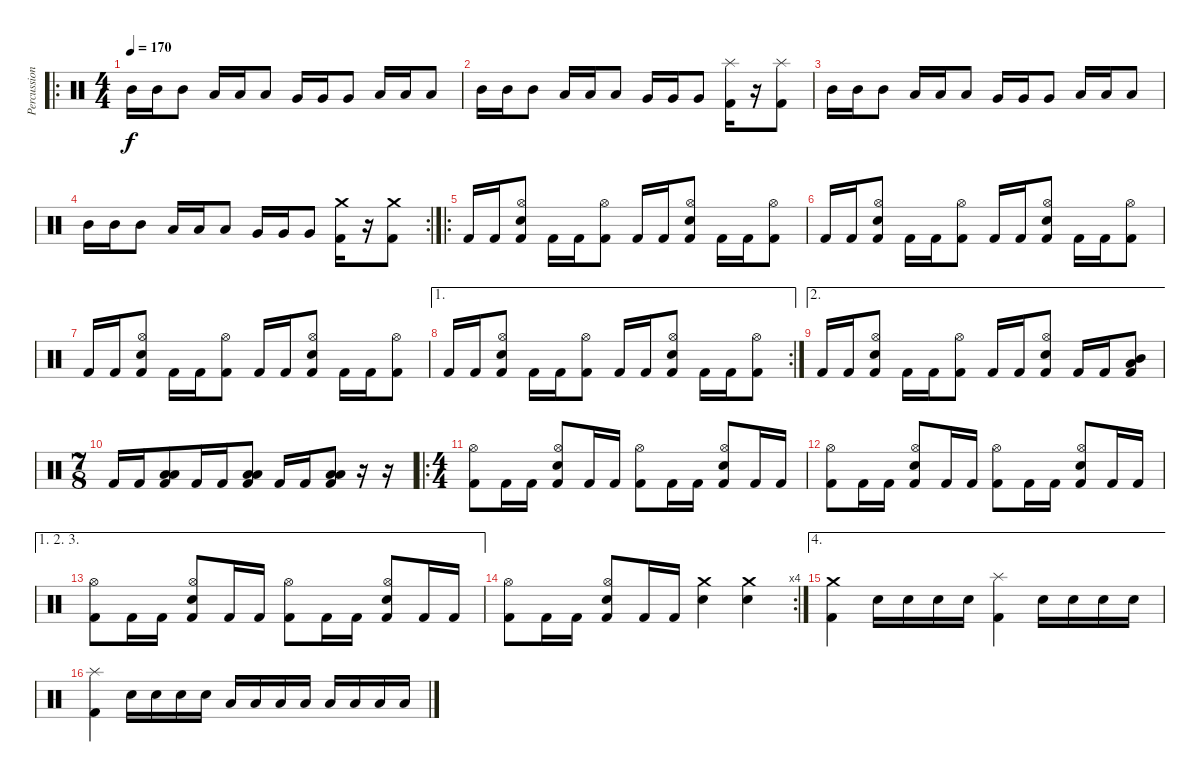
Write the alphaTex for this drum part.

\track ("Percussions" "Percussion") {instrument percussion}
\staff {score}
\articulation defaults
\ro
\ts (4 4)
\tempo 170
\clef neutral
\ks c "Mid Tom (hit)".16{dy f} "Mid Tom (hit)".16 "Mid Tom (hit)".8 "Low Tom (hit)".16 "Low Tom (hit)".16 "Low Tom (hit)".8 "Very Low Tom (hit)".16 "Very Low Tom (hit)".16 "Very Low Tom (hit)".8 "Low Floor Tom (hit)".16 "Low Floor Tom (hit)".16 "Low Floor Tom (hit)".8
|
"Mid Tom (hit)".16 "Mid Tom (hit)".16 "Mid Tom (hit)".8 "Low Tom (hit)".16 "Low Tom (hit)".16 "Low Tom (hit)".8 "Very Low Tom (hit)".16 "Very Low Tom (hit)".16 "Very Low Tom (hit)".8 ("Kick (hit) 2" "Splash (hit)").16 r.16 ("Kick (hit) 2" "Splash (hit)").8 |
"Mid Tom (hit)".16 "Mid Tom (hit)".16 "Mid Tom (hit)".8 "Low Tom (hit)".16 "Low Tom (hit)".16 "Low Tom (hit)".8 "Very Low Tom (hit)".16 "Very Low Tom (hit)".16 "Very Low Tom (hit)".8 "Low Floor Tom (hit)".16 "Low Floor Tom (hit)".16 "Low Floor Tom (hit)".8 |
\rc 2 "Mid Tom (hit)".16 "Mid Tom (hit)".16 "Mid Tom (hit)".8 "Low Tom (hit)".16 "Low Tom (hit)".16 "Low Tom (hit)".8 "Very Low Tom (hit)".16 "Very Low Tom (hit)".16 "Very Low Tom (hit)".8
("Kick (hit) 2" "Crash medium (hit)").16 r.16 ("Kick (hit) 2" "Crash medium (hit)").8 |
\ro "Kick (hit) 2".16 "Kick (hit) 2".16
("Kick (hit) 2" "Hi-Hat (open)" "Snare (hit) 2").8 "Kick (hit) 2".16 "Kick (hit) 2".16 ("Kick (hit) 2" "Hi-Hat (open)").8 "Kick (hit) 2".16 "Kick (hit) 2".16 ("Kick (hit) 2" "Hi-Hat (open)" "Snare (hit) 2").8 "Kick (hit) 2".16 "Kick (hit) 2".16 ("Kick (hit) 2" "Hi-Hat (open)").8 |
"Kick (hit) 2".16 "Kick (hit) 2".16 ("Kick (hit) 2" "Hi-Hat (open)" "Snare (hit) 2").8 "Kick (hit) 2".16 "Kick (hit) 2".16 ("Kick (hit) 2" "Hi-Hat (open)").8 "Kick (hit) 2".16 "Kick (hit) 2".16 ("Kick (hit) 2" "Hi-Hat (open)" "Snare (hit) 2").8 "Kick (hit) 2".16 "Kick (hit) 2".16 ("Kick (hit) 2" "Hi-Hat (open)").8 |
"Kick (hit) 2".16 "Kick (hit) 2".16 ("Kick (hit) 2" "Hi-Hat (open)" "Snare (hit) 2").8 "Kick (hit) 2".16 "Kick (hit) 2".16 ("Kick (hit) 2" "Hi-Hat (open)").8 "Kick (hit) 2".16 "Kick (hit) 2".16 ("Kick (hit) 2" "Hi-Hat (open)" "Snare (hit) 2").8 "Kick (hit) 2".16 "Kick (hit) 2".16 ("Kick (hit) 2" "Hi-Hat (open)").8 |
\ae 1
\rc 2 "Kick (hit) 2".16 "Kick (hit) 2".16
("Kick (hit) 2" "Hi-Hat (open)" "Snare (hit) 2").8 "Kick (hit) 2".16 "Kick (hit) 2".16 ("Kick (hit) 2" "Hi-Hat (open)").8 "Kick (hit) 2".16 "Kick (hit) 2".16 ("Kick (hit) 2" "Hi-Hat (open)" "Snare (hit) 2").8 "Kick (hit) 2".16 "Kick (hit) 2".16 ("Kick (hit) 2" "Hi-Hat (open)").8 |
\ae 2 "Kick (hit) 2".16 "Kick (hit) 2".16
("Kick (hit) 2" "Hi-Hat (open)" "Snare (hit) 2").8 "Kick (hit) 2".16 "Kick (hit) 2".16 ("Kick (hit) 2" "Hi-Hat (open)").8 "Kick (hit) 2".16 "Kick (hit) 2".16 ("Kick (hit) 2" "Hi-Hat (open)" "Snare (hit) 2").8 "Kick (hit) 2".16 "Kick (hit) 2".16 ("Kick (hit) 2" "Mid Tom (hit)" "Low Tom (hit)").8 |
\ts (7 8)
"Kick (hit) 2".16 "Kick (hit) 2".16 ("Kick (hit) 2" "Low Tom (hit)" "Low Floor Tom (hit)").8 "Kick (hit) 2".16 "Kick (hit) 2".16 ("Kick (hit) 2" "Low Floor Tom (hit)" "Low Floor Tom (hit)").8 "Kick (hit) 2".16 "Kick (hit) 2".16 ("Kick (hit) 2" "Low Floor Tom (hit)" "Low Floor Tom (hit)").8 r.16 r.16 |
\ro
\ts (4 4)
("Kick (hit) 2" "Hi-Hat (open)").8 "Kick (hit) 2".16 "Kick (hit) 2".16 ("Kick (hit) 2" "Snare (hit) 2" "Hi-Hat (open)").8 "Kick (hit) 2".16 "Kick (hit) 2".16 ("Kick (hit) 2" "Hi-Hat (open)").8 "Kick (hit) 2".16 "Kick (hit) 2".16 ("Kick (hit) 2" "Snare (hit) 2" "Hi-Hat (open)").8 "Kick (hit) 2".16 "Kick (hit) 2".16 |
("Kick (hit) 2" "Hi-Hat (open)").8 "Kick (hit) 2".16 "Kick (hit) 2".16 ("Kick (hit) 2" "Snare (hit) 2" "Hi-Hat (open)").8 "Kick (hit) 2".16 "Kick (hit) 2".16 ("Kick (hit) 2" "Hi-Hat (open)").8 "Kick (hit) 2".16 "Kick (hit) 2".16 ("Kick (hit) 2" "Snare (hit) 2" "Hi-Hat (open)").8 "Kick (hit) 2".16 "Kick (hit) 2".16 |
\ae (1 2 3)
("Kick (hit) 2" "Hi-Hat (open)").8 "Kick (hit) 2".16 "Kick (hit) 2".16 ("Kick (hit) 2" "Snare (hit) 2" "Hi-Hat (open)").8 "Kick (hit) 2".16 "Kick (hit) 2".16 ("Kick (hit) 2" "Hi-Hat (open)").8 "Kick (hit) 2".16 "Kick (hit) 2".16 ("Kick (hit) 2" "Snare (hit) 2" "Hi-Hat (open)").8 "Kick (hit) 2".16 "Kick (hit) 2".16 |
\rc 4
("Kick (hit) 2" "Hi-Hat (open)").8 "Kick (hit) 2".16 "Kick (hit) 2".16 ("Kick (hit) 2" "Snare (hit) 2" "Hi-Hat (open)").8 "Kick (hit) 2".16 "Kick (hit) 2".16 ("Snare (hit) 2" "Crash medium (hit)").4 ("Snare (hit) 2" "Crash medium (hit)").4 |
\ae 4
("Kick (hit) 2" "Crash medium (hit)").4 "Snare (hit) 2".16 "Snare (hit) 2".16 "Snare (hit) 2".16 "Snare (hit) 2".16 ("Kick (hit) 2" "Splash (hit)").4 "Snare (hit) 2".16 "Snare (hit) 2".16 "Snare (hit) 2".16 "Snare (hit) 2".16 |
("Kick (hit) 2" "Splash (hit)").4 "Snare (hit) 2".16 "Snare (hit) 2".16 "Snare (hit) 2".16 "Snare (hit) 2".16 "Low Tom (hit)".16 "Low Tom (hit)".16 "Low Tom (hit)".16 "Low Tom (hit)".16 "Low Floor Tom (hit)".16 "Low Floor Tom (hit)".16 "Low Floor Tom (hit)".16 "Low Floor Tom (hit)".16
